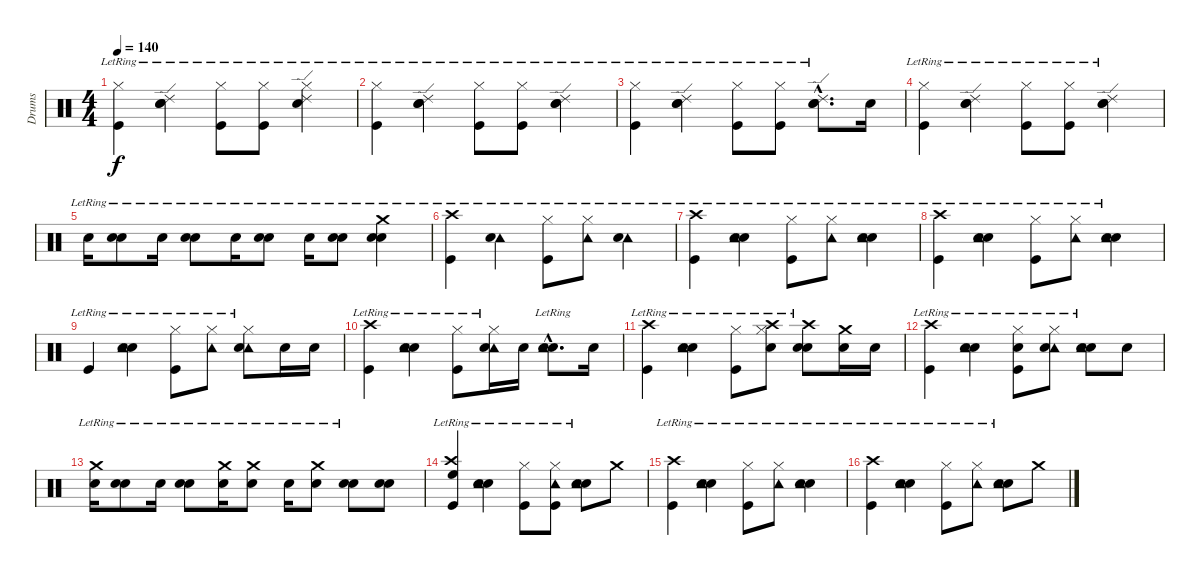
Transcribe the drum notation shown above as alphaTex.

\track ("Drums" "Drums") {instrument percussion}
\staff {score}
\articulation defaults
\ts (4 4)
\tempo 140
\clef neutral
\ks c
("Hi-Hat (closed)"{lr} "Kick (hit)"{lr}).4{dy f} ("Electric Snare (hit)"{lr} "Ride (edge) 2"{lr} "Snare (hit) 2"{lr}).4 ("Hi-Hat (closed)"{lr} "Kick (hit)"{lr}).8 ("Hi-Hat (closed)"{lr} "Kick (hit)").8 ("Hi-Hat (closed)"{lr} "Ride (edge) 2"{lr} "Snare (hit) 2"{lr}).4 |
("Hi-Hat (closed)"{lr} "Kick (hit)"{lr}).4 ("Electric Snare (hit)"{lr} "Ride (edge) 2"{lr} "Snare (hit) 2"{lr}).4 ("Hi-Hat (closed)"{lr} "Kick (hit)"{lr}).8 ("Hi-Hat (closed)"{lr} "Kick (hit)").8 ("Electric Snare (hit)"{lr} "Ride (edge) 2"{lr} "Snare (hit) 2"{lr}).4 |
("Hi-Hat (closed)"{lr} "Kick (hit)"{lr}).4 ("Electric Snare (hit)"{lr} "Ride (edge) 2"{lr} "Snare (hit) 2"{lr}).4 ("Hi-Hat (closed)"{lr} "Kick (hit)"{lr}).8 ("Hi-Hat (closed)"{lr} "Kick (hit)").8 ("Electric Snare (hit)"{hac lr} "Ride (edge) 2"{hac lr} "Snare (hit) 2"{hac lr}).8{d} "Snare (hit) 2".16 |
("Hi-Hat (closed)"{lr} "Kick (hit)"{lr}).4 ("Electric Snare (hit)"{lr} "Ride (edge) 2"{lr} "Snare (hit) 2"{lr}).4 ("Hi-Hat (closed)"{lr} "Kick (hit)"{lr}).8 ("Hi-Hat (closed)"{lr} "Kick (hit)").8 ("Electric Snare (hit)"{lr} "Ride (edge) 2"{lr} "Snare (hit) 2"{lr}).4 |
"Snare (hit) 2"{lr}.16 ("Snare (hit) 2"{lr} "Electric Snare (hit)"{lr}).8 "Snare (hit) 2"{lr}.16 ("Snare (hit) 2"{lr} "Electric Snare (hit)"{lr}).8 "Snare (hit) 2"{lr}.16 ("Snare (hit) 2"{lr} "Electric Snare (hit)"{lr}).8 "Snare (hit) 2"{lr}.16 ("Snare (hit) 2"{lr} "Electric Snare (hit)"{lr}).8 ("Snare (hit) 2"{lr} "Electric Snare (hit)"{lr} "Crash medium (hit)"{lr}).4 |
("Crash high (hit)" "Kick (hit)"{lr}).4 ("Tambourine (hit)"{lr} "Snare (hit) 2").4 ("Hi-Hat (closed)"{lr} "Kick (hit)").8 ("Hi-Hat (closed)"{lr} "Tambourine (hit)").8 ("Tambourine (hit)"{lr} "Snare (hit) 2"{lr}).4 |
("Crash high (hit)" "Kick (hit)"{lr}).4 ("Electric Snare (hit)"{lr} "Tambourine (hit)"{lr} "Snare (hit) 2"{lr}).4 ("Hi-Hat (closed)"{lr} "Kick (hit)"{lr}).8 ("Hi-Hat (closed)"{lr} "Tambourine (hit)").8 ("Electric Snare (hit)"{lr} "Tambourine (hit)"{lr} "Snare (hit) 2"{lr}).4 |
("Crash high (hit)" "Kick (hit)"{lr}).4 ("Electric Snare (hit)"{lr} "Tambourine (hit)"{lr} "Snare (hit) 2"{lr}).4 ("Hi-Hat (closed)"{lr} "Kick (hit)"{lr}).8 ("Hi-Hat (closed)"{lr} "Tambourine (hit)").8 ("Electric Snare (hit)"{lr} "Tambourine (hit)"{lr} "Snare (hit) 2"{lr}).4 |
"Kick (hit)"{lr}.4 ("Electric Snare (hit)"{lr} "Tambourine (hit)"{lr} "Snare (hit) 2"{lr}).4 ("Hi-Hat (closed)"{lr} "Kick (hit)"{lr}).8 ("Hi-Hat (closed)"{lr} "Tambourine (hit)").8 ("Hi-Hat (closed)"{lr} "Tambourine (hit)"{lr} "Snare (hit) 2"{lr}).8 "Snare (hit) 2".16 "Snare (hit) 2".16 |
("Crash high (hit)"{lr} "Kick (hit)"{lr}).4 ("Electric Snare (hit)"{lr} "Tambourine (hit)"{lr} "Snare (hit) 2"{lr}).4 ("Hi-Hat (closed)"{lr} "Kick (hit)"{lr}).8 ("Hi-Hat (closed)"{lr} "Tambourine (hit)" "Snare (hit) 2").16 "Snare (hit) 2".16 ("Electric Snare (hit)"{hac lr} "Tambourine (hit)"{hac lr} "Snare (hit) 2"{hac lr}).8{d} "Snare (hit) 2".16 |
("Crash high (hit)" "Kick (hit)"{lr}).4 ("Electric Snare (hit)"{lr} "Tambourine (hit)"{lr} "Snare (hit) 2"{lr}).4 ("Hi-Hat (closed)"{lr} "Kick (hit)"{lr}).8 ("Hi-Hat (closed)"{lr} "Crash high (hit)" "Snare (hit) 2").8 ("Electric Snare (hit)"{lr} "Crash high (hit)"{lr} "Snare (hit) 2"{lr}).8 ("Crash medium (hit)" "Snare (hit) 2").16 "Snare (hit) 2".16 |
("Crash high (hit)"{lr} "Kick (hit)"{lr}).4 ("Electric Snare (hit)"{lr} "Tambourine (hit)"{lr} "Snare (hit) 2"{lr}).4 ("Hi-Hat (closed)"{lr} "Kick (hit)"{lr} "Snare (hit) 2").8 ("Hi-Hat (closed)"{lr} "Tambourine (hit)" "Snare (hit) 2").8 ("Electric Snare (hit)"{lr} "Tambourine (hit)"{lr} "Snare (hit) 2").8 "Snare (hit) 2".8 |
("Snare (hit) 2"{lr} "Crash medium (hit)").16 ("Snare (hit) 2"{lr} "Electric Snare (hit)"{lr}).8 "Snare (hit) 2"{lr}.16 ("Snare (hit) 2"{lr} "Electric Snare (hit)").8 ("Snare (hit) 2"{lr} "Crash medium (hit)").16 ("Snare (hit) 2"{lr} "Crash medium (hit)"{lr}).8 "Snare (hit) 2"{lr}.16 ("Snare (hit) 2"{lr} "Crash medium (hit)"{lr}).8 ("Snare (hit) 2"{lr} "Electric Snare (hit)"{lr}).8 ("Snare (hit) 2" "Electric Snare (hit)").8 |
("Crash high (hit)"{lr} "Kick (hit)"{lr} "High Floor Tom (hit)"{lr}).4 ("Electric Snare (hit)"{lr} "Tambourine (hit)"{lr} "Snare (hit) 2"{lr}).4 ("Hi-Hat (closed)"{lr} "Kick (hit)"{lr}).8 ("Hi-Hat (closed)"{lr} "Tambourine (hit)" "Kick (hit)").8 ("Electric Snare (hit)"{lr} "Tambourine (hit)"{lr} "Snare (hit) 2"{lr}).8 "Crash medium (hit)".8 |
("Crash high (hit)"{lr} "Kick (hit)"{lr}).4 ("Electric Snare (hit)"{lr} "Tambourine (hit)"{lr} "Snare (hit) 2"{lr}).4 ("Hi-Hat (closed)"{lr} "Kick (hit)"{lr}).8 ("Hi-Hat (closed)"{lr} "Tambourine (hit)").8 ("Electric Snare (hit)"{lr} "Tambourine (hit)"{lr} "Snare (hit) 2"{lr}).4 |
("Crash high (hit)"{lr} "Kick (hit)"{lr}).4 ("Electric Snare (hit)"{lr} "Tambourine (hit)"{lr} "Snare (hit) 2"{lr}).4 ("Hi-Hat (closed)"{lr} "Kick (hit)"{lr}).8 ("Hi-Hat (closed)"{lr} "Tambourine (hit)").8 ("Electric Snare (hit)"{lr} "Tambourine (hit)"{lr} "Snare (hit) 2"{lr}).8 "Crash medium (hit)".8
